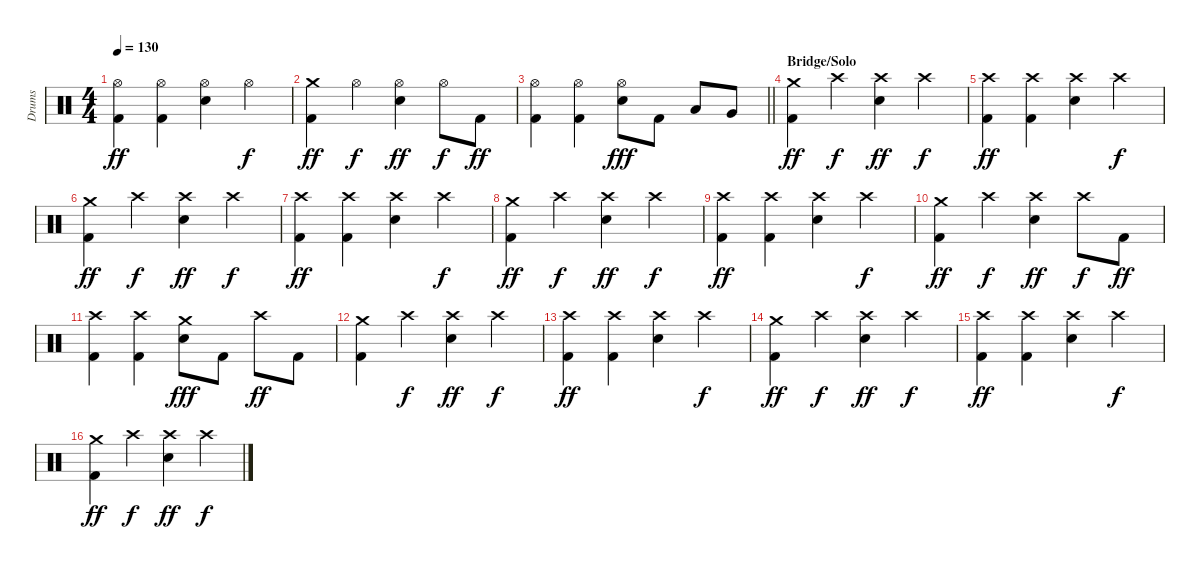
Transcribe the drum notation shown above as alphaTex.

\track ("Drums" "Drums") {instrument percussion}
\staff {score}
\articulation defaults
\ts (4 4)
\tempo 130
\clef neutral
\ks c
("Hi-Hat (open)" "Kick (hit) 2").4{dy ff} ("Hi-Hat (open)" "Kick (hit) 2").4 ("Hi-Hat (open)" "Snare (hit) 2").4 "Hi-Hat (open)".4{dy f} |
("Crash medium (hit)" "Kick (hit) 2").4{dy ff} "Hi-Hat (open)".4{dy f} ("Hi-Hat (open)" "Snare (hit) 2").4{dy ff} "Hi-Hat (open)".8{dy f} "Kick (hit) 2".8{dy ff} |
\barLineRight lightlight
("Hi-Hat (open)" "Kick (hit) 2").4 ("Hi-Hat (open)" "Kick (hit) 2").4 ("Hi-Hat (open)" "Snare (hit) 2").8{dy fff} "Kick (hit) 2".8 "Low Tom (hit)".8 "Very Low Tom (hit)".8 |
\section ("" "Bridge/Solo")
("Crash medium (hit)" "Kick (hit) 2").4{dy ff} "Crash high (hit)".4{dy f} ("Crash high (hit)" "Snare (hit) 2").4{dy ff} "Crash high (hit)".4{dy f} |
("Crash high (hit)" "Kick (hit) 2").4{dy ff} ("Crash high (hit)" "Kick (hit) 2").4 ("Crash high (hit)" "Snare (hit) 2").4 "Crash high (hit)".4{dy f} |
("Crash medium (hit)" "Kick (hit) 2").4{dy ff} "Crash high (hit)".4{dy f} ("Crash high (hit)" "Snare (hit) 2").4{dy ff} "Crash high (hit)".4{dy f} |
("Crash high (hit)" "Kick (hit) 2").4{dy ff} ("Crash high (hit)" "Kick (hit) 2").4 ("Crash high (hit)" "Snare (hit) 2").4 "Crash high (hit)".4{dy f} |
("Crash medium (hit)" "Kick (hit) 2").4{dy ff} "Crash high (hit)".4{dy f} ("Crash high (hit)" "Snare (hit) 2").4{dy ff} "Crash high (hit)".4{dy f} |
("Crash high (hit)" "Kick (hit) 2").4{dy ff} ("Crash high (hit)" "Kick (hit) 2").4 ("Crash high (hit)" "Snare (hit) 2").4 "Crash high (hit)".4{dy f} |
("Crash medium (hit)" "Kick (hit) 2").4{dy ff} "Crash high (hit)".4{dy f} ("Crash high (hit)" "Snare (hit) 2").4{dy ff} "Crash high (hit)".8{dy f} "Kick (hit) 2".8{dy ff} |
("Crash high (hit)" "Kick (hit) 2").4 ("Crash high (hit)" "Kick (hit) 2").4 ("Crash medium (hit)" "Snare (hit) 2").8{dy fff} "Kick (hit) 2".8 "Crash high (hit)".8{dy ff} "Kick (hit) 2".8 |
("Crash medium (hit)" "Kick (hit) 2").4 "Crash high (hit)".4{dy f} ("Crash high (hit)" "Snare (hit) 2").4{dy ff} "Crash high (hit)".4{dy f} |
("Crash high (hit)" "Kick (hit) 2").4{dy ff} ("Crash high (hit)" "Kick (hit) 2").4 ("Crash high (hit)" "Snare (hit) 2").4 "Crash high (hit)".4{dy f} |
("Crash medium (hit)" "Kick (hit) 2").4{dy ff} "Crash high (hit)".4{dy f} ("Crash high (hit)" "Snare (hit) 2").4{dy ff} "Crash high (hit)".4{dy f} |
("Crash high (hit)" "Kick (hit) 2").4{dy ff} ("Crash high (hit)" "Kick (hit) 2").4 ("Crash high (hit)" "Snare (hit) 2").4 "Crash high (hit)".4{dy f} |
("Crash medium (hit)" "Kick (hit) 2").4{dy ff} "Crash high (hit)".4{dy f} ("Crash high (hit)" "Snare (hit) 2").4{dy ff} "Crash high (hit)".4{dy f}
